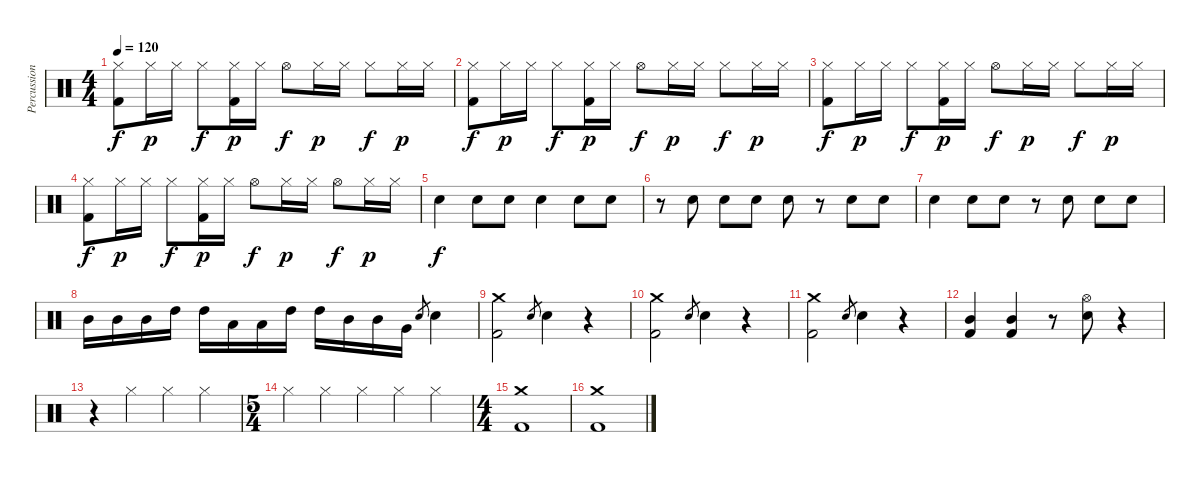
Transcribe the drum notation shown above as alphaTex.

\track ("Percussions" "Percussion") {instrument percussion}
\staff {score}
\articulation defaults
\ts (4 4)
\tempo 120
\clef neutral
\ks c
("Hi-Hat (closed)" "Kick (hit) 2").8{dy f} "Hi-Hat (closed)".16{dy p} "Hi-Hat (closed)".16 "Hi-Hat (closed)".8{dy f} ("Hi-Hat (closed)" "Kick (hit) 2").16{dy p} "Hi-Hat (closed)".16 "Hi-Hat (open)".8{dy f} "Hi-Hat (closed)".16{dy p} "Hi-Hat (closed)".16 "Hi-Hat (closed)".8{dy f} "Hi-Hat (closed)".16{dy p} "Hi-Hat (closed)".16 |
("Hi-Hat (closed)" "Kick (hit) 2").8{dy f} "Hi-Hat (closed)".16{dy p} "Hi-Hat (closed)".16 "Hi-Hat (closed)".8{dy f} ("Hi-Hat (closed)" "Kick (hit) 2").16{dy p} "Hi-Hat (closed)".16 "Hi-Hat (open)".8{dy f} "Hi-Hat (closed)".16{dy p} "Hi-Hat (closed)".16 "Hi-Hat (closed)".8{dy f} "Hi-Hat (closed)".16{dy p} "Hi-Hat (closed)".16 |
("Hi-Hat (closed)" "Kick (hit) 2").8{dy f} "Hi-Hat (closed)".16{dy p} "Hi-Hat (closed)".16 "Hi-Hat (closed)".8{dy f} ("Hi-Hat (closed)" "Kick (hit) 2").16{dy p} "Hi-Hat (closed)".16 "Hi-Hat (open)".8{dy f} "Hi-Hat (closed)".16{dy p} "Hi-Hat (closed)".16 "Hi-Hat (closed)".8{dy f} "Hi-Hat (closed)".16{dy p} "Hi-Hat (closed)".16 |
("Hi-Hat (closed)" "Kick (hit) 2").8{dy f} "Hi-Hat (closed)".16{dy p} "Hi-Hat (closed)".16 "Hi-Hat (closed)".8{dy f} ("Hi-Hat (closed)" "Kick (hit) 2").16{dy p} "Hi-Hat (closed)".16 "Hi-Hat (open)".8{dy f} "Hi-Hat (closed)".16{dy p} "Hi-Hat (closed)".16 "Hi-Hat (open)".8{dy f} "Hi-Hat (closed)".16{dy p} "Hi-Hat (closed)".16 |
"Electric Snare (hit)".4{dy f} "Electric Snare (hit)".8 "Electric Snare (hit)".8 "Electric Snare (hit)".4 "Electric Snare (hit)".8 "Electric Snare (hit)".8 |
r.8 "Electric Snare (hit)".8 "Electric Snare (hit)".8 "Electric Snare (hit)".8 "Electric Snare (hit)".8 r.8 "Electric Snare (hit)".8 "Electric Snare (hit)".8 |
"Electric Snare (hit)".4 "Electric Snare (hit)".8 "Electric Snare (hit)".8 r.8 "Electric Snare (hit)".8 "Electric Snare (hit)".8 "Electric Snare (hit)".8 |
"Mid Tom (hit)".16 "Mid Tom (hit)".16 "Mid Tom (hit)".16 "High Tom (hit)".16 "High Tom (hit)".16 "Low Tom (hit)".16 "Low Tom (hit)".16 "High Tom (hit)".16 "High Tom (hit)".16 "Mid Tom (hit)".16 "Mid Tom (hit)".16 "Very Low Tom (hit)".16 "Electric Snare (hit)".8{gr} "Electric Snare (hit)".4 |
("Crash medium (hit)" "Kick (hit) 2").2 "Electric Snare (hit)".8{gr} "Electric Snare (hit)".4 r.4 |
("Crash medium (hit)" "Kick (hit) 2").2 "Electric Snare (hit)".8{gr} "Electric Snare (hit)".4 r.4 |
("Crash medium (hit)" "Kick (hit) 2").2 "Electric Snare (hit)".8{gr} "Electric Snare (hit)".4 r.4 |
("Mid Tom (hit)" "Kick (hit) 2").4 ("Mid Tom (hit)" "Kick (hit) 2").4 r.8 ("Hi-Hat (open)" "Electric Snare (hit)").8 r.4 |
r.4 "Hi-Hat (closed)".4 "Hi-Hat (closed)".4 "Hi-Hat (closed)".4 |
\ts (5 4)
"Hi-Hat (closed)".4 "Hi-Hat (closed)".4 "Hi-Hat (closed)".4 "Hi-Hat (closed)".4 "Hi-Hat (closed)".4 |
\ts (4 4)
("Crash medium (hit)" "Kick (hit) 2").1 |
("Crash medium (hit)" "Kick (hit) 2").1
